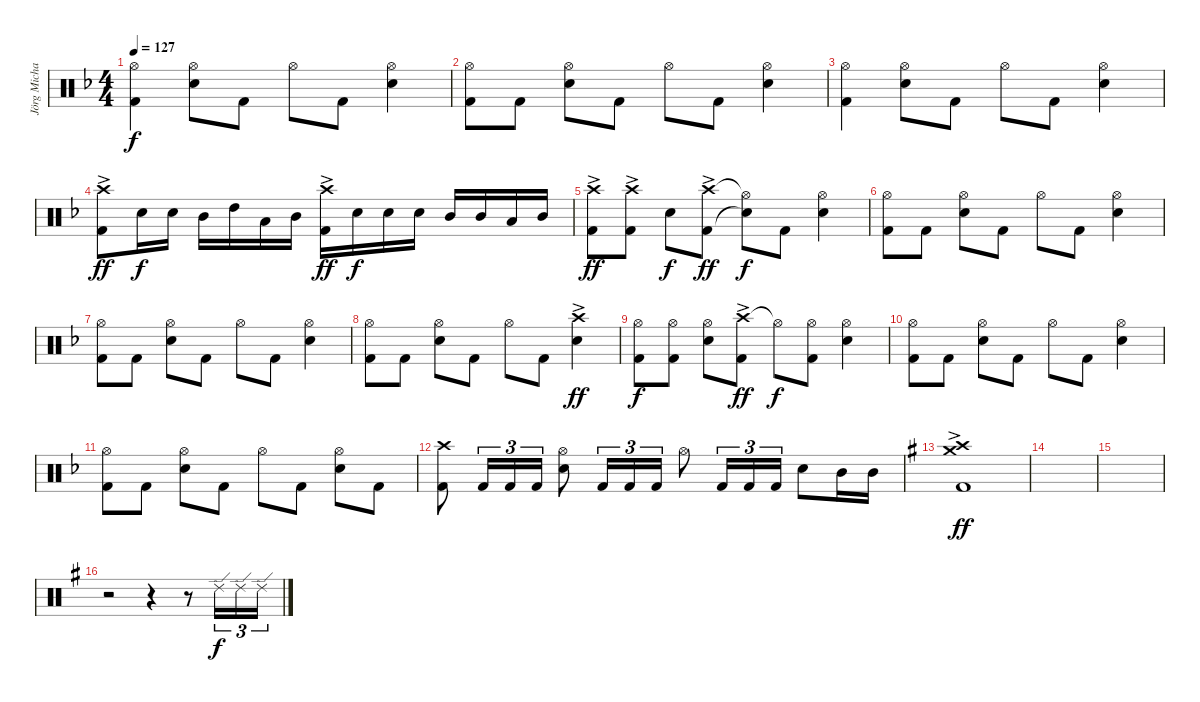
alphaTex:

\track ("Jörg Michael" "Jörg Micha") {instrument percussion}
\staff {score}
\articulation defaults
\ts (4 4)
\tempo 127
\clef neutral
\ks f
("Hi-Hat (open)" "Kick (hit) 2").4{dy f} ("Hi-Hat (open)" "Electric Snare (hit)").8 "Kick (hit) 2".8 "Hi-Hat (open)".8 "Kick (hit) 2".8 ("Electric Snare (hit)" "Hi-Hat (open)").4 |
("Hi-Hat (open)" "Kick (hit) 2").8 "Kick (hit) 2".8 ("Hi-Hat (open)" "Electric Snare (hit)").8 "Kick (hit) 2".8 "Hi-Hat (open)".8 "Kick (hit) 2".8 ("Hi-Hat (open)" "Electric Snare (hit)").4 |
("Hi-Hat (open)" "Kick (hit) 2").4 ("Hi-Hat (open)" "Electric Snare (hit)").8 "Kick (hit) 2".8 "Hi-Hat (open)".8 "Kick (hit) 2".8 ("Electric Snare (hit)" "Hi-Hat (open)").4 |
("Crash high (hit)"{ac} "Kick (hit) 2"{ac}).8{dy ff} "Electric Snare (hit)".16{dy f} "Electric Snare (hit)".16 "Mid Tom (hit)".16 "High Tom (hit)".16 "Low Tom (hit)".16 "Mid Tom (hit)".16 ("Crash high (hit)"{ac} "Kick (hit) 2"{ac}).16{dy ff} "Electric Snare (hit)".16{dy f} "Electric Snare (hit)".16 "Electric Snare (hit)".16 "Mid Tom (hit)".16 "Mid Tom (hit)".16 "Low Tom (hit)".16 "Mid Tom (hit)".16 |
("Crash high (hit)"{ac} "Kick (hit) 2"{ac}).8{dy ff} ("Crash high (hit)"{ac} "Kick (hit) 2"{ac}).8 "Electric Snare (hit)".8{dy f} ("Crash high (hit)"{ac} "Kick (hit) 2"{ac}).8{dy ff} ("Hi-Hat (open)"{t} "Snare (hit)"{t}).8{dy f} "Kick (hit) 2".8 ("Hi-Hat (open)" "Electric Snare (hit)").4 |
("Hi-Hat (open)" "Kick (hit) 2").8 "Kick (hit) 2".8 ("Hi-Hat (open)" "Electric Snare (hit)").8 "Kick (hit) 2".8 "Hi-Hat (open)".8 "Kick (hit) 2".8 ("Hi-Hat (open)" "Electric Snare (hit)").4 |
("Hi-Hat (open)" "Kick (hit) 2").8 "Kick (hit) 2".8 ("Hi-Hat (open)" "Electric Snare (hit)").8 "Kick (hit) 2".8 "Hi-Hat (open)".8 "Kick (hit) 2".8 ("Hi-Hat (open)" "Electric Snare (hit)").4 |
("Hi-Hat (open)" "Kick (hit) 2").8 "Kick (hit) 2".8 ("Hi-Hat (open)" "Electric Snare (hit)").8 "Kick (hit) 2".8 "Hi-Hat (open)".8 "Kick (hit) 2".8 ("Crash high (hit)"{ac} "Electric Snare (hit)"{ac}).4{dy ff} |
("Hi-Hat (open)" "Kick (hit) 2").8{dy f} ("Hi-Hat (open)" "Kick (hit) 2").8 ("Hi-Hat (open)" "Electric Snare (hit)").8 ("Crash high (hit)"{ac} "Kick (hit) 2"{ac}).8{dy ff} "Hi-Hat (open)"{t}.8{dy f} ("Hi-Hat (open)" "Kick (hit) 2").8 ("Hi-Hat (open)" "Electric Snare (hit)").4 |
("Hi-Hat (open)" "Kick (hit) 2").8 "Kick (hit) 2".8 ("Hi-Hat (open)" "Electric Snare (hit)").8 "Kick (hit) 2".8 "Hi-Hat (open)".8 "Kick (hit) 2".8 ("Hi-Hat (open)" "Electric Snare (hit)").4 |
("Hi-Hat (open)" "Kick (hit) 2").8 "Kick (hit) 2".8 ("Hi-Hat (open)" "Electric Snare (hit)").8 "Kick (hit) 2".8 "Hi-Hat (open)".8 "Kick (hit) 2".8 ("Hi-Hat (open)" "Electric Snare (hit)").8 "Kick (hit) 2".8 |
("Crash high (hit)" "Kick (hit) 2").8 "Kick (hit) 2".16{tu (3 2)} "Kick (hit) 2".16{tu (3 2)} "Kick (hit) 2".16{tu (3 2)} ("Electric Snare (hit)" "Hi-Hat (open)").8 "Kick (hit) 2".16{tu (3 2)} "Kick (hit) 2".16{tu (3 2)} "Kick (hit) 2".16{tu (3 2)} "Hi-Hat (open)".8 "Kick (hit) 2".16{tu (3 2)} "Kick (hit) 2".16{tu (3 2)} "Kick (hit) 2".16{tu (3 2)} "Electric Snare (hit)".8 "Mid Tom (hit)".16 "Mid Tom (hit)".16 |
\ks g
("Crash high (hit)"{ac} "Kick (hit) 2"{ac} "Crash medium (hit)"{ac}).1{dy ff} |
|
|
r.2 r.4 r.8 "Ride (edge) 2".16{tu (3 2) dy f} "Ride (edge) 2".16{tu (3 2)} "Ride (edge) 2".16{tu (3 2)}
